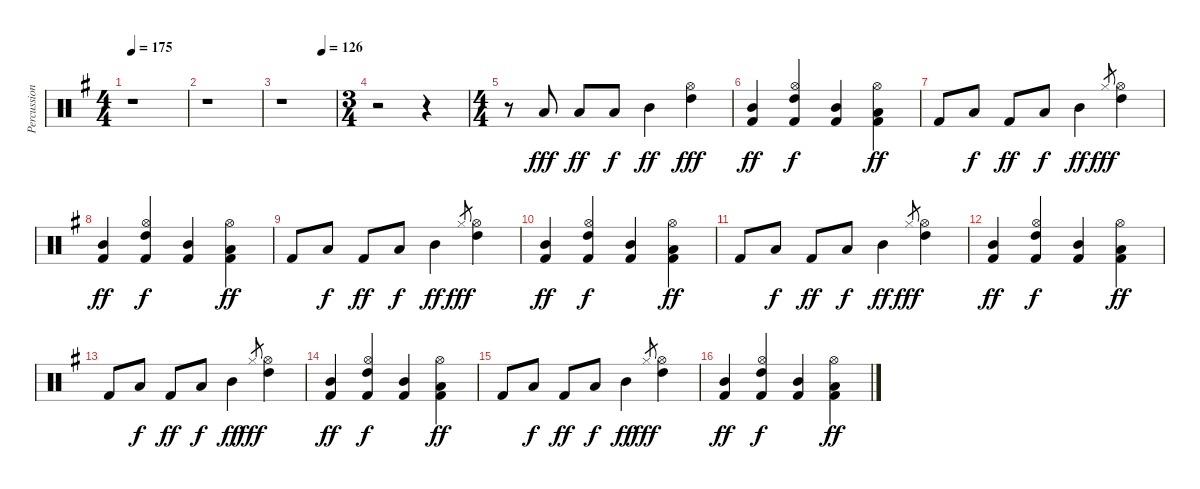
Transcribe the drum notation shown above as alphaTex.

\track ("Percussion" "Percussion") {instrument percussion}
\staff {score}
\articulation defaults
\ts (4 4)
\tempo 175
\clef neutral
\ks g
r.1{dy fff} |
r.1 |
\tempo (126 0.75)
r.1 |
\ts (3 4)
r.2 r.4 |
\ts (4 4)
r.8 "Low Floor Tom (hit)".8 "Low Floor Tom (hit)".8{dy ff} "Low Floor Tom (hit)".8{dy f} "Mid Tom (hit)".4{dy ff} ("High Tom (hit)" "Hi-Hat (open)").4{dy fff} |
("Kick (hit) 2" "Mid Tom (hit)").4{dy ff} ("Kick (hit) 2" "High Tom (hit)" "Hi-Hat (open)").4{dy f} ("Kick (hit) 2" "Mid Tom (hit)").4 ("Kick (hit) 2" "Low Tom (hit)" "Hi-Hat (open)").4{dy ff} |
"Kick (hit) 2".8{balance 10} "Low Floor Tom (hit)".8{dy f} "Kick (hit) 2".8{dy ff} "Low Floor Tom (hit)".8{dy f} "Mid Tom (hit)".4{dy ff} "Hi-Hat (closed)".8{gr dy fff} ("High Tom (hit)" "Hi-Hat (open)").4 |
("Kick (hit) 2" "Mid Tom (hit)").4{dy ff} ("Kick (hit) 2" "High Tom (hit)" "Hi-Hat (open)").4{dy f} ("Kick (hit) 2" "Mid Tom (hit)").4 ("Kick (hit) 2" "Low Tom (hit)" "Hi-Hat (open)").4{dy ff} |
"Kick (hit) 2".8 "Low Floor Tom (hit)".8{dy f} "Kick (hit) 2".8{dy ff} "Low Floor Tom (hit)".8{dy f} "Mid Tom (hit)".4{dy ff} "Hi-Hat (closed)".8{gr dy fff} ("High Tom (hit)" "Hi-Hat (open)").4 |
("Kick (hit) 2" "Mid Tom (hit)").4{dy ff} ("Kick (hit) 2" "High Tom (hit)" "Hi-Hat (open)").4{dy f} ("Kick (hit) 2" "Mid Tom (hit)").4 ("Kick (hit) 2" "Low Tom (hit)" "Hi-Hat (open)").4{dy ff} |
"Kick (hit) 2".8 "Low Floor Tom (hit)".8{dy f} "Kick (hit) 2".8{dy ff} "Low Floor Tom (hit)".8{dy f} "Mid Tom (hit)".4{dy ff} "Hi-Hat (closed)".8{gr dy fff} ("High Tom (hit)" "Hi-Hat (open)").4 |
("Kick (hit) 2" "Mid Tom (hit)").4{dy ff} ("Kick (hit) 2" "High Tom (hit)" "Hi-Hat (open)").4{dy f} ("Kick (hit) 2" "Mid Tom (hit)").4 ("Kick (hit) 2" "Low Tom (hit)" "Hi-Hat (open)").4{dy ff} |
"Kick (hit) 2".8 "Low Floor Tom (hit)".8{dy f} "Kick (hit) 2".8{dy ff} "Low Floor Tom (hit)".8{dy f} "Mid Tom (hit)".4{dy ff} "Hi-Hat (closed)".8{gr dy fff} ("High Tom (hit)" "Hi-Hat (open)").4 |
("Kick (hit) 2" "Mid Tom (hit)").4{dy ff} ("Kick (hit) 2" "High Tom (hit)" "Hi-Hat (open)").4{dy f} ("Kick (hit) 2" "Mid Tom (hit)").4 ("Kick (hit) 2" "Low Tom (hit)" "Hi-Hat (open)").4{dy ff} |
"Kick (hit) 2".8 "Low Floor Tom (hit)".8{dy f} "Kick (hit) 2".8{dy ff} "Low Floor Tom (hit)".8{dy f} "Mid Tom (hit)".4{dy ff} "Hi-Hat (closed)".8{gr dy fff} ("High Tom (hit)" "Hi-Hat (open)").4 |
("Kick (hit) 2" "Mid Tom (hit)").4{dy ff} ("Kick (hit) 2" "High Tom (hit)" "Hi-Hat (open)").4{dy f} ("Kick (hit) 2" "Mid Tom (hit)").4 ("Kick (hit) 2" "Low Tom (hit)" "Hi-Hat (open)").4{dy ff}
